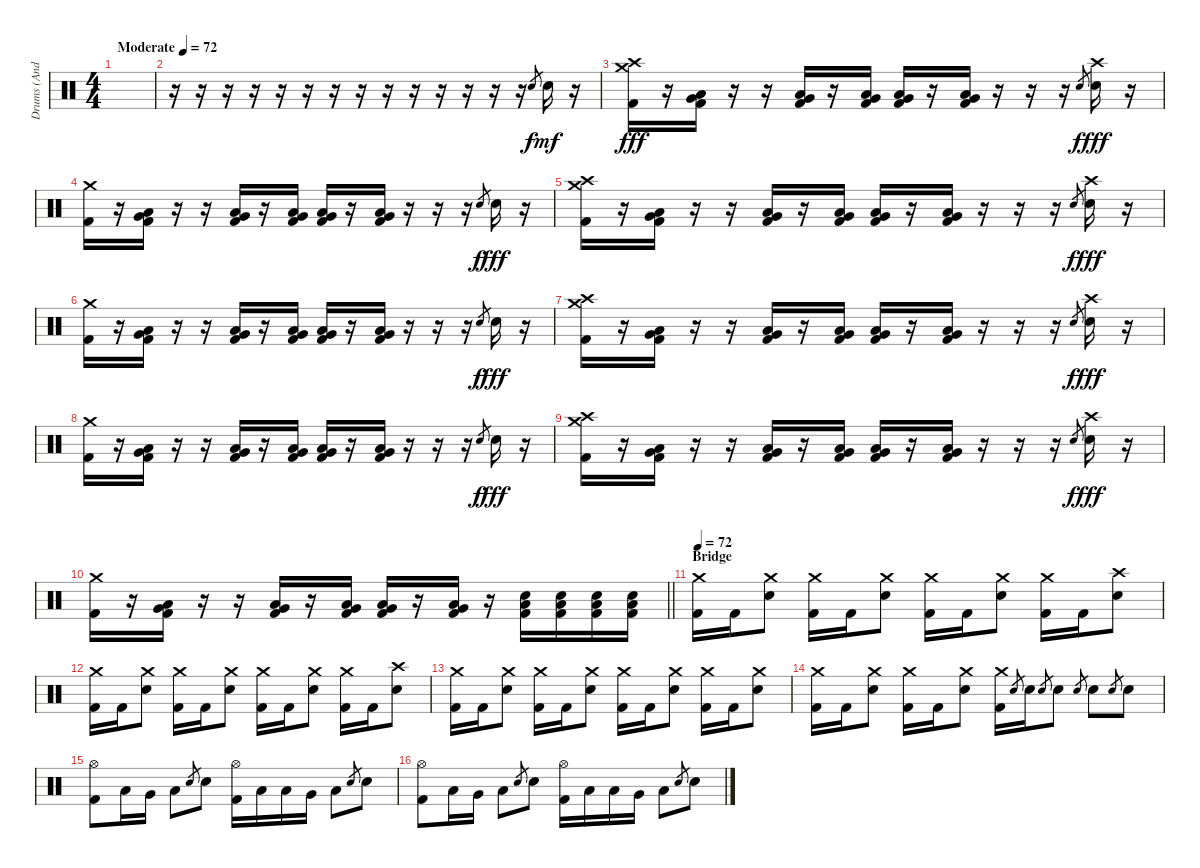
\track ("Drums (Andy)" "Drums (And") {instrument percussion}
\staff {score}
\articulation defaults
\ts (4 4)
\tempo (72 "Moderate")
\clef neutral
\ks c
|
r.16 r.16 r.16 r.16 r.16 r.16 r.16 r.16 r.16 r.16 r.16 r.16 r.16 r.16 "Snare (hit) 2".8{gr} "Snare (hit) 2".16{dy mf} r.16 |
("Crash medium (hit)" "Crash high (hit)" "Kick (hit) 2").16{dy fff} r.16 ("Low Floor Tom (hit)" "Very Low Tom (hit)" "Kick (hit) 2").16 r.16 r.16 ("Low Floor Tom (hit)" "Very Low Tom (hit)" "Kick (hit) 2").16 r.16 ("Low Floor Tom (hit)" "Very Low Tom (hit)" "Kick (hit) 2").16 ("Low Floor Tom (hit)" "Very Low Tom (hit)" "Kick (hit) 2").16 r.16 ("Low Floor Tom (hit)" "Very Low Tom (hit)" "Kick (hit) 2").16 r.16 r.16 r.16 "Snare (hit) 2".8{gr dy f} ("Crash high (hit)" "Snare (hit) 2").16{dy fff} r.16 |
("Crash medium (hit)" "Kick (hit) 2").16 r.16 ("Low Floor Tom (hit)" "Very Low Tom (hit)" "Kick (hit) 2").16 r.16 r.16 ("Low Floor Tom (hit)" "Very Low Tom (hit)" "Kick (hit) 2").16 r.16 ("Low Floor Tom (hit)" "Very Low Tom (hit)" "Kick (hit) 2").16 ("Low Floor Tom (hit)" "Very Low Tom (hit)" "Kick (hit) 2").16 r.16 ("Low Floor Tom (hit)" "Very Low Tom (hit)" "Kick (hit) 2").16 r.16 r.16 r.16 "Snare (hit) 2".8{gr dy f} "Snare (hit) 2".16{dy fff} r.16 |
("Crash medium (hit)" "Crash high (hit)" "Kick (hit) 2").16 r.16 ("Low Floor Tom (hit)" "Very Low Tom (hit)" "Kick (hit) 2").16 r.16 r.16 ("Low Floor Tom (hit)" "Very Low Tom (hit)" "Kick (hit) 2").16 r.16 ("Low Floor Tom (hit)" "Very Low Tom (hit)" "Kick (hit) 2").16 ("Low Floor Tom (hit)" "Very Low Tom (hit)" "Kick (hit) 2").16 r.16 ("Low Floor Tom (hit)" "Very Low Tom (hit)" "Kick (hit) 2").16 r.16 r.16 r.16 "Snare (hit) 2".8{gr dy f} ("Crash high (hit)" "Snare (hit) 2").16{dy fff} r.16 |
("Crash medium (hit)" "Kick (hit) 2").16 r.16 ("Low Floor Tom (hit)" "Very Low Tom (hit)" "Kick (hit) 2").16 r.16 r.16 ("Low Floor Tom (hit)" "Very Low Tom (hit)" "Kick (hit) 2").16 r.16 ("Low Floor Tom (hit)" "Very Low Tom (hit)" "Kick (hit) 2").16 ("Low Floor Tom (hit)" "Very Low Tom (hit)" "Kick (hit) 2").16 r.16 ("Low Floor Tom (hit)" "Very Low Tom (hit)" "Kick (hit) 2").16 r.16 r.16 r.16 "Snare (hit) 2".8{gr dy f} "Snare (hit) 2".16{dy fff} r.16 |
("Crash medium (hit)" "Crash high (hit)" "Kick (hit) 2").16 r.16 ("Low Floor Tom (hit)" "Very Low Tom (hit)" "Kick (hit) 2").16 r.16 r.16 ("Low Floor Tom (hit)" "Very Low Tom (hit)" "Kick (hit) 2").16 r.16 ("Low Floor Tom (hit)" "Very Low Tom (hit)" "Kick (hit) 2").16 ("Low Floor Tom (hit)" "Very Low Tom (hit)" "Kick (hit) 2").16 r.16 ("Low Floor Tom (hit)" "Very Low Tom (hit)" "Kick (hit) 2").16 r.16 r.16 r.16 "Snare (hit) 2".8{gr dy f} ("Crash high (hit)" "Snare (hit) 2").16{dy fff} r.16 |
("Crash medium (hit)" "Kick (hit) 2").16 r.16 ("Low Floor Tom (hit)" "Very Low Tom (hit)" "Kick (hit) 2").16 r.16 r.16 ("Low Floor Tom (hit)" "Very Low Tom (hit)" "Kick (hit) 2").16 r.16 ("Low Floor Tom (hit)" "Very Low Tom (hit)" "Kick (hit) 2").16 ("Low Floor Tom (hit)" "Very Low Tom (hit)" "Kick (hit) 2").16 r.16 ("Low Floor Tom (hit)" "Very Low Tom (hit)" "Kick (hit) 2").16 r.16 r.16 r.16 "Snare (hit) 2".8{gr dy f} "Snare (hit) 2".16{dy fff} r.16 |
("Crash medium (hit)" "Crash high (hit)" "Kick (hit) 2").16 r.16 ("Low Floor Tom (hit)" "Very Low Tom (hit)" "Kick (hit) 2").16 r.16 r.16 ("Low Floor Tom (hit)" "Very Low Tom (hit)" "Kick (hit) 2").16 r.16 ("Low Floor Tom (hit)" "Very Low Tom (hit)" "Kick (hit) 2").16 ("Low Floor Tom (hit)" "Very Low Tom (hit)" "Kick (hit) 2").16 r.16 ("Low Floor Tom (hit)" "Very Low Tom (hit)" "Kick (hit) 2").16 r.16 r.16 r.16 "Snare (hit) 2".8{gr dy f} ("Crash high (hit)" "Snare (hit) 2").16{dy fff} r.16 |
\barLineRight lightlight
("Crash medium (hit)" "Kick (hit) 2").16 r.16 ("Low Floor Tom (hit)" "Very Low Tom (hit)" "Kick (hit) 2").16 r.16 r.16 ("Low Floor Tom (hit)" "Very Low Tom (hit)" "Kick (hit) 2").16 r.16 ("Low Floor Tom (hit)" "Very Low Tom (hit)" "Kick (hit) 2").16 ("Low Floor Tom (hit)" "Very Low Tom (hit)" "Kick (hit) 2").16 r.16 ("Low Floor Tom (hit)" "Very Low Tom (hit)" "Kick (hit) 2").16 r.16 ("Snare (hit) 2" "Low Floor Tom (hit)" "Kick (hit) 2").16 ("Snare (hit) 2" "Low Floor Tom (hit)" "Kick (hit) 2").16 ("Snare (hit) 2" "Low Floor Tom (hit)" "Kick (hit) 2").16 ("Snare (hit) 2" "Low Floor Tom (hit)" "Kick (hit) 2").16 |
\section ("" "Bridge")
\tempo 72
("Crash medium (hit)" "Kick (hit) 2").16 "Kick (hit) 2".16 ("Crash medium (hit)" "Snare (hit) 2").8 ("Crash medium (hit)" "Kick (hit) 2").16 "Kick (hit) 2".16 ("Crash medium (hit)" "Snare (hit) 2").8 ("Crash medium (hit)" "Kick (hit) 2").16 "Kick (hit) 2".16 ("Crash medium (hit)" "Snare (hit) 2").8 ("Crash medium (hit)" "Kick (hit) 2").16 "Kick (hit) 2".16 ("Crash high (hit)" "Snare (hit) 2").8 |
("Crash medium (hit)" "Kick (hit) 2").16 "Kick (hit) 2".16 ("Crash medium (hit)" "Snare (hit) 2").8 ("Crash medium (hit)" "Kick (hit) 2").16 "Kick (hit) 2".16 ("Crash medium (hit)" "Snare (hit) 2").8 ("Crash medium (hit)" "Kick (hit) 2").16 "Kick (hit) 2".16 ("Crash medium (hit)" "Snare (hit) 2").8 ("Crash medium (hit)" "Kick (hit) 2").16 "Kick (hit) 2".16 ("Crash high (hit)" "Snare (hit) 2").8 |
("Crash medium (hit)" "Kick (hit) 2").16 "Kick (hit) 2".16 ("Crash medium (hit)" "Snare (hit) 2").8 ("Crash medium (hit)" "Kick (hit) 2").16 "Kick (hit) 2".16 ("Crash medium (hit)" "Snare (hit) 2").8 ("Crash medium (hit)" "Kick (hit) 2").16 "Kick (hit) 2".16 ("Crash medium (hit)" "Snare (hit) 2").8 ("Crash medium (hit)" "Kick (hit) 2").16 "Kick (hit) 2".16 ("Crash medium (hit)" "Snare (hit) 2").8 |
("Crash medium (hit)" "Kick (hit) 2").16 "Kick (hit) 2".16 ("Crash medium (hit)" "Snare (hit) 2").8 ("Crash medium (hit)" "Kick (hit) 2").16 "Kick (hit) 2".16 ("Crash medium (hit)" "Snare (hit) 2").8 ("Crash medium (hit)" "Kick (hit) 2").16 "Snare (hit) 2".8{gr} "Snare (hit) 2".16 "Snare (hit) 2".8{gr} "Snare (hit) 2".8 "Snare (hit) 2".8{gr} "Snare (hit) 2".8 "Snare (hit) 2".8{gr} "Snare (hit) 2".8 |
("Hi-Hat (open)" "Kick (hit) 2").8 "Low Floor Tom (hit)".16 "Very Low Tom (hit)".16 "Low Floor Tom (hit)".8 "Snare (hit) 2".8{gr} "Snare (hit) 2".8 ("Hi-Hat (open)" "Kick (hit) 2").16 "Low Floor Tom (hit)".16 "Low Floor Tom (hit)".16 "Very Low Tom (hit)".16 "Low Floor Tom (hit)".8 "Snare (hit) 2".8{gr} "Snare (hit) 2".8 |
("Hi-Hat (open)" "Kick (hit) 2").8 "Low Floor Tom (hit)".16 "Very Low Tom (hit)".16 "Low Floor Tom (hit)".8 "Snare (hit) 2".8{gr} "Snare (hit) 2".8 ("Hi-Hat (open)" "Kick (hit) 2").16 "Low Floor Tom (hit)".16 "Low Floor Tom (hit)".16 "Very Low Tom (hit)".16 "Low Floor Tom (hit)".8 "Snare (hit) 2".8{gr} "Snare (hit) 2".8
